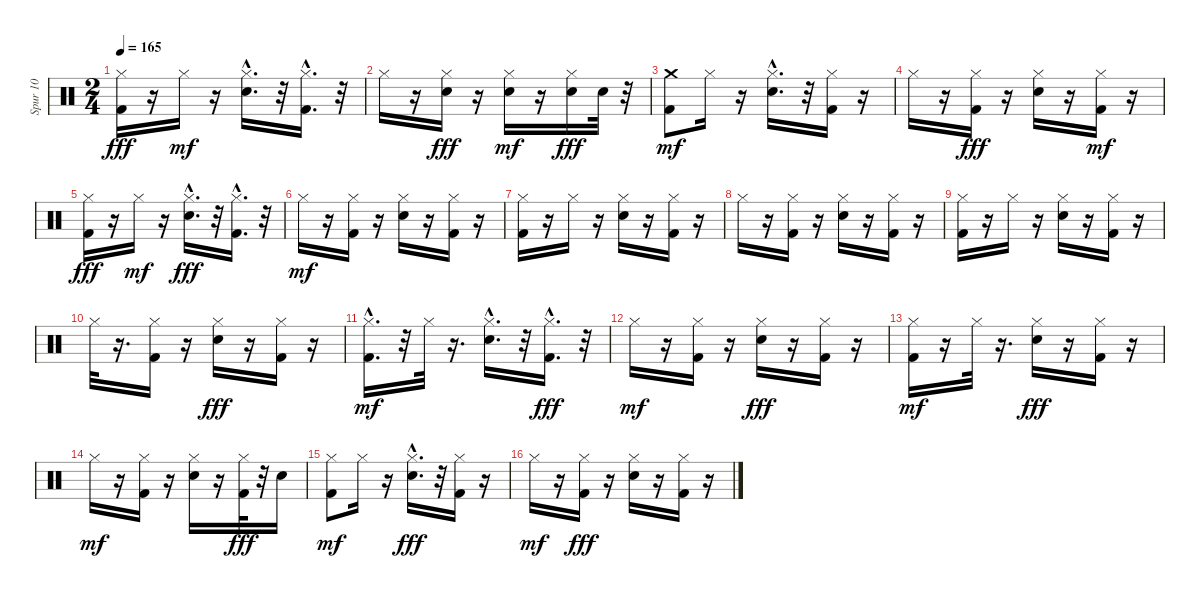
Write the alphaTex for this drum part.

\track ("Spur 10" "Spur 10") {instrument percussion}
\staff {score}
\articulation defaults
\ts (2 4)
\tempo 165
\clef neutral
\ks c
("Hi-Hat (closed)" "Kick (hit) 2").16{dy fff} r.16 "Hi-Hat (closed)".16{dy mf} r.16 ("Electric Snare (hit)"{hac} "Hi-Hat (closed)").16{d} r.32 ("Kick (hit) 2"{hac} "Hi-Hat (closed)").16{d} r.32 |
"Hi-Hat (closed)".16 r.16 ("Hi-Hat (closed)" "Electric Snare (hit)").16{dy fff} r.16 ("Electric Snare (hit)" "Hi-Hat (closed)").16{dy mf} r.16 ("Hi-Hat (closed)" "Electric Snare (hit)").16{dy fff} "Electric Snare (hit)".32 r.32 |
("Kick (hit) 2" "Crash medium (hit)").8{dy mf} "Hi-Hat (closed)".16 r.16 ("Electric Snare (hit)"{hac} "Hi-Hat (closed)").16{d} r.32 ("Kick (hit) 2" "Hi-Hat (closed)").16 r.16 |
"Hi-Hat (closed)".16 r.16 ("Hi-Hat (closed)" "Kick (hit) 2").16{dy fff} r.16 ("Hi-Hat (closed)" "Electric Snare (hit)").16 r.16 ("Kick (hit) 2" "Hi-Hat (closed)").16{dy mf} r.16 |
("Hi-Hat (closed)" "Kick (hit) 2").16{dy fff} r.16 "Hi-Hat (closed)".16{dy mf} r.16 ("Hi-Hat (closed)" "Electric Snare (hit)"{hac}).16{d dy fff} r.32 ("Hi-Hat (closed)" "Kick (hit) 2"{hac}).16{d} r.32 |
"Hi-Hat (closed)".16{dy mf} r.16 ("Kick (hit) 2" "Hi-Hat (closed)").16 r.16 ("Electric Snare (hit)" "Hi-Hat (closed)").16 r.16 ("Kick (hit) 2" "Hi-Hat (closed)").16 r.16 |
("Kick (hit) 2" "Hi-Hat (closed)").16 r.16 "Hi-Hat (closed)".16 r.16 ("Electric Snare (hit)" "Hi-Hat (closed)").16 r.16 ("Kick (hit) 2" "Hi-Hat (closed)").16 r.16 |
"Hi-Hat (closed)".16 r.16 ("Kick (hit) 2" "Hi-Hat (closed)").16 r.16 ("Electric Snare (hit)" "Hi-Hat (closed)").16 r.16 ("Kick (hit) 2" "Hi-Hat (closed)").16 r.16 |
("Kick (hit) 2" "Hi-Hat (closed)").16 r.16 "Hi-Hat (closed)".16 r.16 ("Electric Snare (hit)" "Hi-Hat (closed)").16 r.16 ("Kick (hit) 2" "Hi-Hat (closed)").16 r.16 |
"Hi-Hat (closed)".32 r.16{d} ("Kick (hit) 2" "Hi-Hat (closed)").16 r.16 ("Hi-Hat (closed)" "Electric Snare (hit)").16{dy fff} r.16 ("Hi-Hat (closed)" "Kick (hit) 2").16 r.16 |
("Kick (hit) 2"{hac} "Hi-Hat (closed)").16{d dy mf} r.32 "Hi-Hat (closed)".32 r.16{d} ("Electric Snare (hit)"{hac} "Hi-Hat (closed)").16{d} r.32 ("Hi-Hat (closed)" "Kick (hit) 2"{hac}).16{d dy fff} r.32 |
"Hi-Hat (closed)".16{dy mf} r.16 ("Kick (hit) 2" "Hi-Hat (closed)").16 r.16 ("Hi-Hat (closed)" "Electric Snare (hit)").16{dy fff} r.16 ("Hi-Hat (closed)" "Kick (hit) 2").16 r.16 |
("Kick (hit) 2" "Hi-Hat (closed)").16{dy mf} r.16 "Hi-Hat (closed)".32 r.16{d} ("Hi-Hat (closed)" "Electric Snare (hit)").16{dy fff} r.16 ("Hi-Hat (closed)" "Kick (hit) 2").16 r.16 |
"Hi-Hat (closed)".16{dy mf} r.16 ("Kick (hit) 2" "Hi-Hat (closed)").16 r.16 ("Electric Snare (hit)" "Hi-Hat (closed)").16 r.16 ("Hi-Hat (closed)" "Kick (hit) 2").32{dy fff} r.32 "Electric Snare (hit)".16 |
("Kick (hit) 2" "Hi-Hat (closed)").8{dy mf} "Hi-Hat (closed)".16 r.16 ("Hi-Hat (closed)" "Electric Snare (hit)"{hac}).16{d dy fff} r.32 ("Hi-Hat (closed)" "Kick (hit) 2").16 r.16 |
"Hi-Hat (closed)".16{dy mf} r.16 ("Hi-Hat (closed)" "Kick (hit) 2").16{dy fff} r.16 ("Hi-Hat (closed)" "Electric Snare (hit)").16 r.16 ("Hi-Hat (closed)" "Kick (hit) 2").16 r.16
